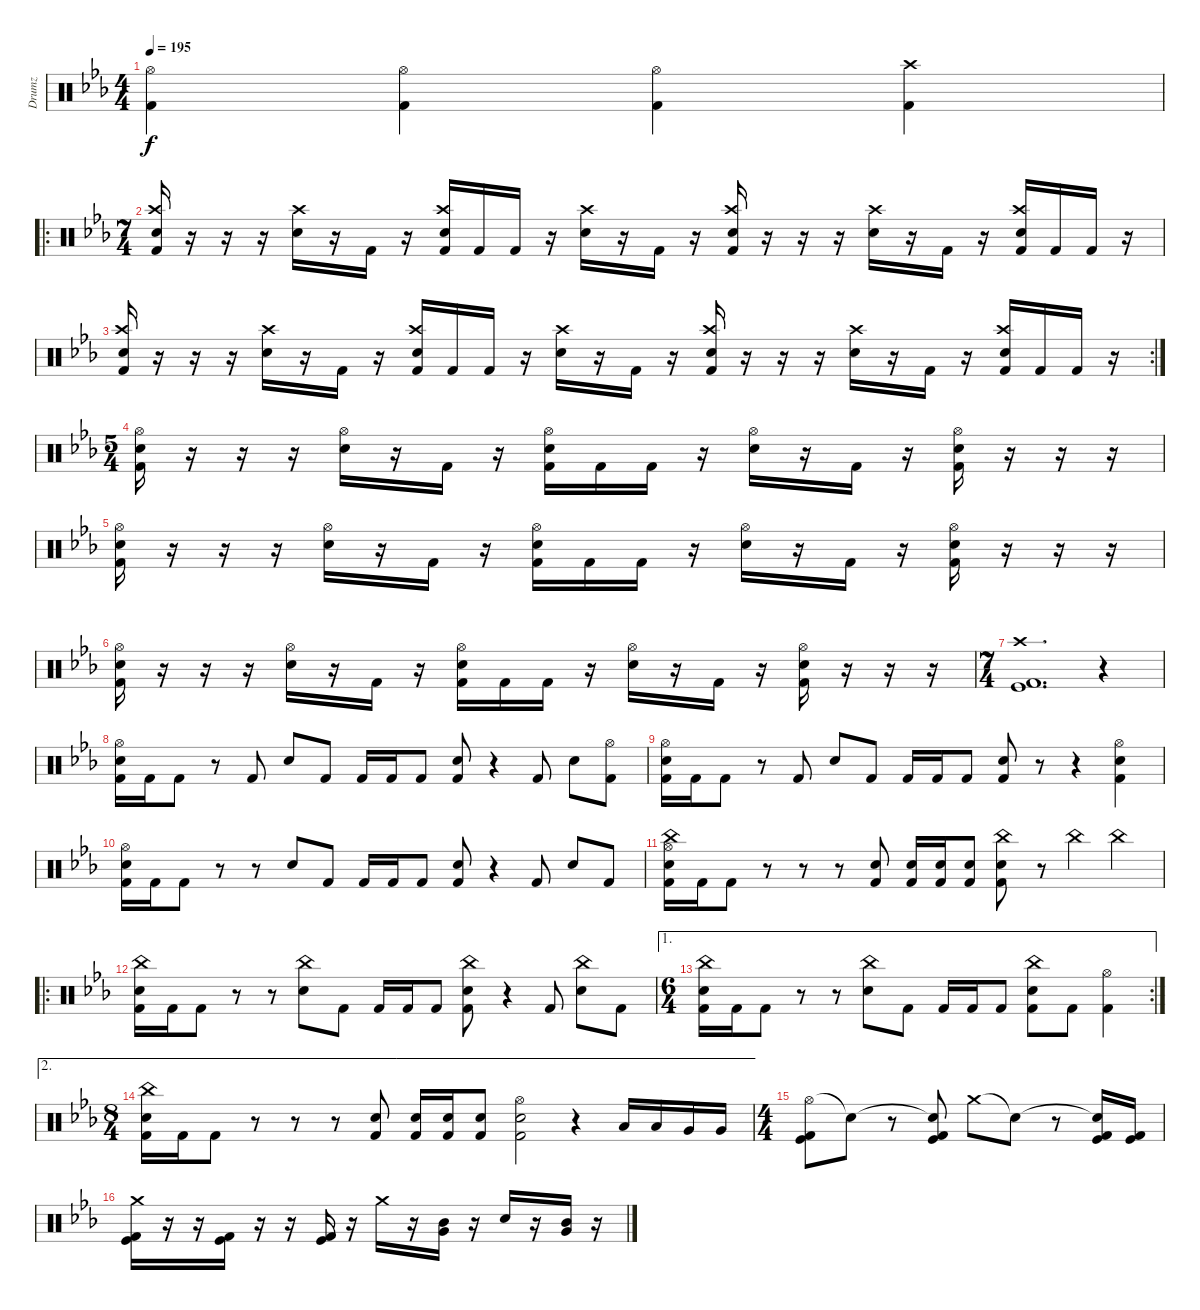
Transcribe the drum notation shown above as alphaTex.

\track ("Drumz" "Drumz") {instrument percussion}
\staff {score}
\articulation defaults
\ts (4 4)
\tempo 195
\clef neutral
\ks cminor
("Hi-Hat (open)" "Kick (hit) 2").4{dy f} ("Hi-Hat (open)" "Kick (hit) 2").4 ("Hi-Hat (open)" "Kick (hit) 2").4 ("Crash high (hit)" "Kick (hit) 2").4 |
\ro
\ts (7 4)
("Crash high (hit)" "Snare (hit) 2" "Kick (hit) 2").16 r.16 r.16 r.16 ("Crash high (hit)" "Snare (hit) 2").16 r.16 "Kick (hit) 2".16 r.16 ("Crash high (hit)" "Snare (hit) 2" "Kick (hit) 2").16 "Kick (hit) 2".16 "Kick (hit) 2".16 r.16 ("Crash high (hit)" "Snare (hit) 2").16 r.16 "Kick (hit) 2".16 r.16 ("Crash high (hit)" "Snare (hit) 2" "Kick (hit) 2").16 r.16 r.16 r.16 ("Crash high (hit)" "Snare (hit) 2").16 r.16 "Kick (hit) 2".16 r.16 ("Crash high (hit)" "Snare (hit) 2" "Kick (hit) 2").16 "Kick (hit) 2".16 "Kick (hit) 2".16 r.16 |
\rc 2
("Crash high (hit)" "Snare (hit) 2" "Kick (hit) 2").16 r.16 r.16 r.16 ("Crash high (hit)" "Snare (hit) 2").16 r.16 "Kick (hit) 2".16 r.16 ("Crash high (hit)" "Snare (hit) 2" "Kick (hit) 2").16 "Kick (hit) 2".16 "Kick (hit) 2".16 r.16 ("Crash high (hit)" "Snare (hit) 2").16 r.16 "Kick (hit) 2".16 r.16 ("Crash high (hit)" "Snare (hit) 2" "Kick (hit) 2").16 r.16 r.16 r.16 ("Crash high (hit)" "Snare (hit) 2").16 r.16 "Kick (hit) 2".16 r.16 ("Crash high (hit)" "Snare (hit) 2" "Kick (hit) 2").16 "Kick (hit) 2".16 "Kick (hit) 2".16 r.16 |
\ts (5 4)
("Hi-Hat (open)" "Snare (hit) 2" "Kick (hit) 2").16 r.16 r.16 r.16 ("Hi-Hat (open)" "Snare (hit) 2").16 r.16 "Kick (hit) 2".16 r.16 ("Hi-Hat (open)" "Snare (hit) 2" "Kick (hit) 2").16 "Kick (hit) 2".16 "Kick (hit) 2".16 r.16 ("Hi-Hat (open)" "Snare (hit) 2").16 r.16 "Kick (hit) 2".16 r.16 ("Hi-Hat (open)" "Snare (hit) 2" "Kick (hit) 2").16 r.16 r.16 r.16 |
("Hi-Hat (open)" "Snare (hit) 2" "Kick (hit) 2").16 r.16 r.16 r.16 ("Hi-Hat (open)" "Snare (hit) 2").16 r.16 "Kick (hit) 2".16 r.16 ("Hi-Hat (open)" "Snare (hit) 2" "Kick (hit) 2").16 "Kick (hit) 2".16 "Kick (hit) 2".16 r.16 ("Hi-Hat (open)" "Snare (hit) 2").16 r.16 "Kick (hit) 2".16 r.16 ("Hi-Hat (open)" "Snare (hit) 2" "Kick (hit) 2").16 r.16 r.16 r.16 |
("Hi-Hat (open)" "Snare (hit) 2" "Kick (hit) 2").16 r.16 r.16 r.16 ("Hi-Hat (open)" "Snare (hit) 2").16 r.16 "Kick (hit) 2".16 r.16 ("Hi-Hat (open)" "Snare (hit) 2" "Kick (hit) 2").16 "Kick (hit) 2".16 "Kick (hit) 2".16 r.16 ("Hi-Hat (open)" "Snare (hit) 2").16 r.16 "Kick (hit) 2".16 r.16 ("Hi-Hat (open)" "Snare (hit) 2" "Kick (hit) 2").16 r.16 r.16 r.16 |
\ts (7 4)
("Kick (hit)" "Kick (hit) 2" "Crash high (hit)").1{d} r.4 |
("Hi-Hat (open)" "Snare (hit) 2" "Kick (hit) 2").16 "Kick (hit) 2".16 "Kick (hit) 2".8 r.8 "Kick (hit) 2".8 "Snare (hit) 2".8 "Kick (hit) 2".8 "Kick (hit) 2".16 "Kick (hit) 2".16 "Kick (hit) 2".8 ("Snare (hit) 2" "Kick (hit) 2").8 r.4 "Kick (hit) 2".8 "Snare (hit) 2".8 ("Hi-Hat (open)" "Kick (hit) 2").8 |
("Hi-Hat (open)" "Snare (hit) 2" "Kick (hit) 2").16 "Kick (hit) 2".16 "Kick (hit) 2".8 r.8 "Kick (hit) 2".8 "Snare (hit) 2".8 "Kick (hit) 2".8 "Kick (hit) 2".16 "Kick (hit) 2".16 "Kick (hit) 2".8 ("Snare (hit) 2" "Kick (hit) 2").8 r.8 r.4 ("Hi-Hat (open)" "Snare (hit) 2" "Kick (hit) 2").4 |
("Hi-Hat (open)" "Snare (hit) 2" "Kick (hit) 2").16 "Kick (hit) 2".16 "Kick (hit) 2".8 r.8 r.8 "Snare (hit) 2".8 "Kick (hit) 2".8 "Kick (hit) 2".16 "Kick (hit) 2".16 "Kick (hit) 2".8 ("Snare (hit) 2" "Kick (hit) 2").8 r.4 "Kick (hit) 2".8 "Snare (hit) 2".8 "Kick (hit) 2".8 |
("China (hit)" "Hi-Hat (open)" "Snare (hit) 2" "Kick (hit) 2").16 "Kick (hit) 2".16 "Kick (hit) 2".8 r.8 r.8 r.8 ("Snare (hit) 2" "Kick (hit) 2").8 ("Snare (hit) 2" "Kick (hit) 2").16 ("Snare (hit) 2" "Kick (hit) 2").16 ("Snare (hit) 2" "Kick (hit) 2").8 ("China (hit)" "Snare (hit) 2" "Kick (hit) 2").8 r.8 "China (hit)".4 "China (hit)".4 |
\ro
("China (hit)" "Snare (hit) 2" "Kick (hit) 2").16 "Kick (hit) 2".16 "Kick (hit) 2".8 r.8 r.8 ("China (hit)" "Snare (hit) 2").8 "Kick (hit) 2".8 "Kick (hit) 2".16 "Kick (hit) 2".16 "Kick (hit) 2".8 ("China (hit)" "Snare (hit) 2" "Kick (hit) 2").8 r.4 "Kick (hit) 2".8 ("China (hit)" "Snare (hit) 2").8 "Kick (hit) 2".8 |
\ae 1
\rc 2
\ts (6 4)
("China (hit)" "Snare (hit) 2" "Kick (hit) 2").16 "Kick (hit) 2".16 "Kick (hit) 2".8 r.8 r.8 ("China (hit)" "Snare (hit) 2").8 "Kick (hit) 2".8 "Kick (hit) 2".16 "Kick (hit) 2".16 "Kick (hit) 2".8 ("China (hit)" "Snare (hit) 2" "Kick (hit) 2").8 "Kick (hit) 2".8 ("Hi-Hat (open)" "Kick (hit) 2").4 |
\ae 2
\ts (8 4)
("China (hit)" "Snare (hit) 2" "Kick (hit) 2").16 "Kick (hit) 2".16 "Kick (hit) 2".8 r.8 r.8 r.8 ("Snare (hit) 2" "Kick (hit) 2").8 ("Snare (hit) 2" "Kick (hit) 2").16 ("Snare (hit) 2" "Kick (hit) 2").16 ("Snare (hit) 2" "Kick (hit) 2").8 ("Hi-Hat (open)" "Snare (hit) 2" "Kick (hit) 2").2 r.4 "Low Tom (hit)".16 "Low Tom (hit)".16 "Very Low Tom (hit)".16 "Very Low Tom (hit)".16 |
\ts (4 4)
("Hi-Hat (open)" "Kick (hit)" "Kick (hit) 2").8 "Snare (hit)"{t}.8 r.8 ("Snare (hit)"{t} "Kick (hit)" "Kick (hit) 2").8 "Crash medium (hit)".8 "Snare (hit)"{t}.8 r.8 ("Snare (hit)"{t} "Kick (hit)" "Kick (hit) 2").16 ("Kick (hit)" "Kick (hit) 2").16 |
("Crash medium (hit)" "Kick (hit)" "Kick (hit) 2").16 r.16 r.16 ("Kick (hit)" "Kick (hit) 2").16 r.16 r.16 ("Kick (hit)" "Kick (hit) 2").16 r.16 "Crash medium (hit)".16 r.16 ("Mid Tom (hit)" "Very Low Tom (hit)").16 r.16 "Snare (hit) 2".16 r.16 ("Mid Tom (hit)" "Very Low Tom (hit)").16 r.16
